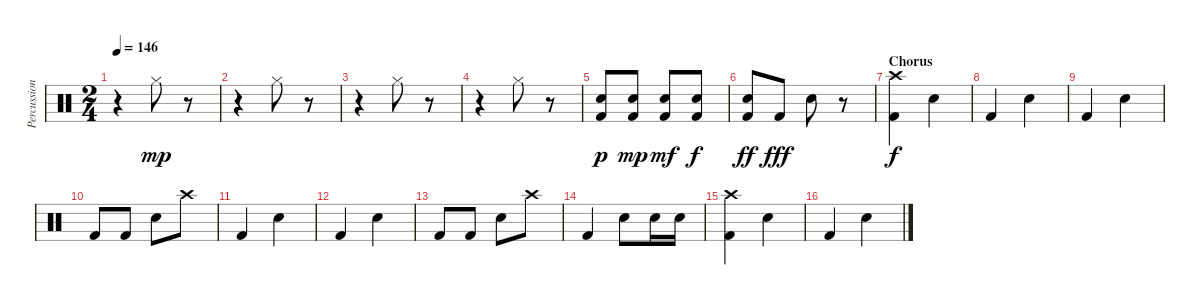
\track ("Percussion" "Percussion") {instrument percussion}
\staff {score}
\articulation defaults
\ts (2 4)
\tempo 146
\clef neutral
\ks c
r.4{dy mp} "Hi-Hat (closed)".8 r.8 |
r.4 "Hi-Hat (closed)".8 r.8 |
r.4 "Hi-Hat (closed)".8 r.8 |
r.4 "Hi-Hat (closed)".8 r.8 |
("Electric Snare (hit)" "Kick (hit) 2").8{dy p} ("Electric Snare (hit)" "Kick (hit) 2").8{dy mp} ("Electric Snare (hit)" "Kick (hit) 2").8{dy mf} ("Electric Snare (hit)" "Kick (hit) 2").8{dy f} |
("Electric Snare (hit)" "Kick (hit) 2").8{dy ff} "Kick (hit) 2".8{dy fff} "Electric Snare (hit)".8 r.8 |
\section ("" "Chorus")
("Crash high (hit)" "Kick (hit) 2").4{dy f} "Electric Snare (hit)".4 |
"Kick (hit) 2".4 "Electric Snare (hit)".4 |
"Kick (hit) 2".4 "Electric Snare (hit)".4 |
"Kick (hit) 2".8 "Kick (hit) 2".8 "Electric Snare (hit)".8 "Crash high (hit)".8 |
"Kick (hit) 2".4 "Electric Snare (hit)".4 |
"Kick (hit) 2".4 "Electric Snare (hit)".4 |
"Kick (hit) 2".8 "Kick (hit) 2".8 "Electric Snare (hit)".8 "Crash high (hit)".8 |
"Kick (hit) 2".4 "Electric Snare (hit)".8 "Electric Snare (hit)".16 "Electric Snare (hit)".16 |
("Crash high (hit)" "Kick (hit) 2").4 "Electric Snare (hit)".4 |
"Kick (hit) 2".4 "Electric Snare (hit)".4
